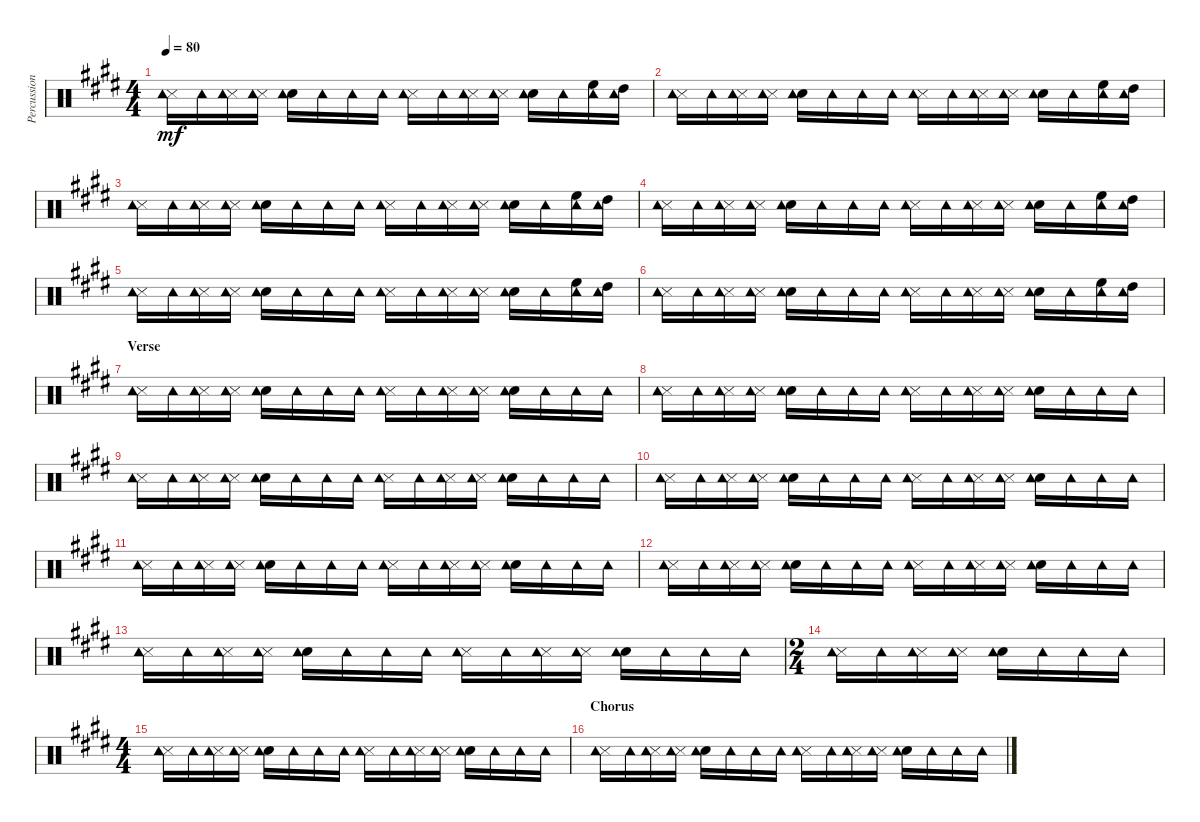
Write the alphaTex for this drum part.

\track ("Percussion" "Percussion") {instrument percussion}
\staff {score}
\articulation defaults
\ts (4 4)
\tempo 80
\clef neutral
\ks c#minor
("Metronome (hit)" "Tambourine (hit)").16{dy mf} "Tambourine (hit)".16 ("Metronome (hit)" "Tambourine (hit)").16 ("Metronome (hit)" "Tambourine (hit)").16 ("Snare (hit) 2" "Tambourine (hit)").16 "Tambourine (hit)".16 "Tambourine (hit)".16 "Tambourine (hit)".16 ("Metronome (hit)" "Tambourine (hit)").16 "Tambourine (hit)".16 ("Metronome (hit)" "Tambourine (hit)").16 ("Metronome (hit)" "Tambourine (hit)").16 ("Snare (hit) 2" "Tambourine (hit)").16 "Tambourine (hit)".16 ("High Floor Tom (hit)" "Tambourine (hit)").16 ("High Tom (hit)" "Tambourine (hit)").16 |
("Metronome (hit)" "Tambourine (hit)").16 "Tambourine (hit)".16 ("Metronome (hit)" "Tambourine (hit)").16 ("Metronome (hit)" "Tambourine (hit)").16 ("Snare (hit) 2" "Tambourine (hit)").16 "Tambourine (hit)".16 "Tambourine (hit)".16 "Tambourine (hit)".16 ("Metronome (hit)" "Tambourine (hit)").16 "Tambourine (hit)".16 ("Metronome (hit)" "Tambourine (hit)").16 ("Metronome (hit)" "Tambourine (hit)").16 ("Snare (hit) 2" "Tambourine (hit)").16 "Tambourine (hit)".16 ("High Floor Tom (hit)" "Tambourine (hit)").16 ("High Tom (hit)" "Tambourine (hit)").16 |
("Metronome (hit)" "Tambourine (hit)").16 "Tambourine (hit)".16 ("Metronome (hit)" "Tambourine (hit)").16 ("Metronome (hit)" "Tambourine (hit)").16 ("Snare (hit) 2" "Tambourine (hit)").16 "Tambourine (hit)".16 "Tambourine (hit)".16 "Tambourine (hit)".16 ("Metronome (hit)" "Tambourine (hit)").16 "Tambourine (hit)".16 ("Metronome (hit)" "Tambourine (hit)").16 ("Metronome (hit)" "Tambourine (hit)").16 ("Snare (hit) 2" "Tambourine (hit)").16 "Tambourine (hit)".16 ("High Floor Tom (hit)" "Tambourine (hit)").16 ("High Tom (hit)" "Tambourine (hit)").16 |
("Metronome (hit)" "Tambourine (hit)").16 "Tambourine (hit)".16 ("Metronome (hit)" "Tambourine (hit)").16 ("Metronome (hit)" "Tambourine (hit)").16 ("Snare (hit) 2" "Tambourine (hit)").16 "Tambourine (hit)".16 "Tambourine (hit)".16 "Tambourine (hit)".16 ("Metronome (hit)" "Tambourine (hit)").16 "Tambourine (hit)".16 ("Metronome (hit)" "Tambourine (hit)").16 ("Metronome (hit)" "Tambourine (hit)").16 ("Snare (hit) 2" "Tambourine (hit)").16 "Tambourine (hit)".16 ("High Floor Tom (hit)" "Tambourine (hit)").16 ("High Tom (hit)" "Tambourine (hit)").16 |
("Metronome (hit)" "Tambourine (hit)").16 "Tambourine (hit)".16 ("Metronome (hit)" "Tambourine (hit)").16 ("Metronome (hit)" "Tambourine (hit)").16 ("Snare (hit) 2" "Tambourine (hit)").16 "Tambourine (hit)".16 "Tambourine (hit)".16 "Tambourine (hit)".16 ("Metronome (hit)" "Tambourine (hit)").16 "Tambourine (hit)".16 ("Metronome (hit)" "Tambourine (hit)").16 ("Metronome (hit)" "Tambourine (hit)").16 ("Snare (hit) 2" "Tambourine (hit)").16 "Tambourine (hit)".16 ("High Floor Tom (hit)" "Tambourine (hit)").16 ("High Tom (hit)" "Tambourine (hit)").16 |
("Metronome (hit)" "Tambourine (hit)").16 "Tambourine (hit)".16 ("Metronome (hit)" "Tambourine (hit)").16 ("Metronome (hit)" "Tambourine (hit)").16 ("Snare (hit) 2" "Tambourine (hit)").16 "Tambourine (hit)".16 "Tambourine (hit)".16 "Tambourine (hit)".16 ("Metronome (hit)" "Tambourine (hit)").16 "Tambourine (hit)".16 ("Metronome (hit)" "Tambourine (hit)").16 ("Metronome (hit)" "Tambourine (hit)").16 ("Snare (hit) 2" "Tambourine (hit)").16 "Tambourine (hit)".16 ("High Floor Tom (hit)" "Tambourine (hit)").16 ("High Tom (hit)" "Tambourine (hit)").16 |
\section ("" "Verse")
("Metronome (hit)" "Tambourine (hit)").16 "Tambourine (hit)".16 ("Metronome (hit)" "Tambourine (hit)").16 ("Metronome (hit)" "Tambourine (hit)").16 ("Snare (hit) 2" "Tambourine (hit)").16 "Tambourine (hit)".16 "Tambourine (hit)".16 "Tambourine (hit)".16 ("Metronome (hit)" "Tambourine (hit)").16 "Tambourine (hit)".16 ("Metronome (hit)" "Tambourine (hit)").16 ("Metronome (hit)" "Tambourine (hit)").16 ("Snare (hit) 2" "Tambourine (hit)").16 "Tambourine (hit)".16 "Tambourine (hit)".16 "Tambourine (hit)".16 |
("Metronome (hit)" "Tambourine (hit)").16 "Tambourine (hit)".16 ("Metronome (hit)" "Tambourine (hit)").16 ("Metronome (hit)" "Tambourine (hit)").16 ("Snare (hit) 2" "Tambourine (hit)").16 "Tambourine (hit)".16 "Tambourine (hit)".16 "Tambourine (hit)".16 ("Metronome (hit)" "Tambourine (hit)").16 "Tambourine (hit)".16 ("Metronome (hit)" "Tambourine (hit)").16 ("Metronome (hit)" "Tambourine (hit)").16 ("Snare (hit) 2" "Tambourine (hit)").16 "Tambourine (hit)".16 "Tambourine (hit)".16 "Tambourine (hit)".16 |
("Metronome (hit)" "Tambourine (hit)").16 "Tambourine (hit)".16 ("Metronome (hit)" "Tambourine (hit)").16 ("Metronome (hit)" "Tambourine (hit)").16 ("Snare (hit) 2" "Tambourine (hit)").16 "Tambourine (hit)".16 "Tambourine (hit)".16 "Tambourine (hit)".16 ("Metronome (hit)" "Tambourine (hit)").16 "Tambourine (hit)".16 ("Metronome (hit)" "Tambourine (hit)").16 ("Metronome (hit)" "Tambourine (hit)").16 ("Snare (hit) 2" "Tambourine (hit)").16 "Tambourine (hit)".16 "Tambourine (hit)".16 "Tambourine (hit)".16 |
("Metronome (hit)" "Tambourine (hit)").16 "Tambourine (hit)".16 ("Metronome (hit)" "Tambourine (hit)").16 ("Metronome (hit)" "Tambourine (hit)").16 ("Snare (hit) 2" "Tambourine (hit)").16 "Tambourine (hit)".16 "Tambourine (hit)".16 "Tambourine (hit)".16 ("Metronome (hit)" "Tambourine (hit)").16 "Tambourine (hit)".16 ("Metronome (hit)" "Tambourine (hit)").16 ("Metronome (hit)" "Tambourine (hit)").16 ("Snare (hit) 2" "Tambourine (hit)").16 "Tambourine (hit)".16 "Tambourine (hit)".16 "Tambourine (hit)".16 |
("Metronome (hit)" "Tambourine (hit)").16 "Tambourine (hit)".16 ("Metronome (hit)" "Tambourine (hit)").16 ("Metronome (hit)" "Tambourine (hit)").16 ("Snare (hit) 2" "Tambourine (hit)").16 "Tambourine (hit)".16 "Tambourine (hit)".16 "Tambourine (hit)".16 ("Metronome (hit)" "Tambourine (hit)").16 "Tambourine (hit)".16 ("Metronome (hit)" "Tambourine (hit)").16 ("Metronome (hit)" "Tambourine (hit)").16 ("Snare (hit) 2" "Tambourine (hit)").16 "Tambourine (hit)".16 "Tambourine (hit)".16 "Tambourine (hit)".16 |
("Metronome (hit)" "Tambourine (hit)").16 "Tambourine (hit)".16 ("Metronome (hit)" "Tambourine (hit)").16 ("Metronome (hit)" "Tambourine (hit)").16 ("Snare (hit) 2" "Tambourine (hit)").16 "Tambourine (hit)".16 "Tambourine (hit)".16 "Tambourine (hit)".16 ("Metronome (hit)" "Tambourine (hit)").16 "Tambourine (hit)".16 ("Metronome (hit)" "Tambourine (hit)").16 ("Metronome (hit)" "Tambourine (hit)").16 ("Snare (hit) 2" "Tambourine (hit)").16 "Tambourine (hit)".16 "Tambourine (hit)".16 "Tambourine (hit)".16 |
("Metronome (hit)" "Tambourine (hit)").16 "Tambourine (hit)".16 ("Metronome (hit)" "Tambourine (hit)").16 ("Metronome (hit)" "Tambourine (hit)").16 ("Snare (hit) 2" "Tambourine (hit)").16 "Tambourine (hit)".16 "Tambourine (hit)".16 "Tambourine (hit)".16 ("Metronome (hit)" "Tambourine (hit)").16 "Tambourine (hit)".16 ("Metronome (hit)" "Tambourine (hit)").16 ("Metronome (hit)" "Tambourine (hit)").16 ("Snare (hit) 2" "Tambourine (hit)").16 "Tambourine (hit)".16 "Tambourine (hit)".16 "Tambourine (hit)".16 |
\ts (2 4)
("Metronome (hit)" "Tambourine (hit)").16 "Tambourine (hit)".16 ("Metronome (hit)" "Tambourine (hit)").16 ("Metronome (hit)" "Tambourine (hit)").16 ("Snare (hit) 2" "Tambourine (hit)").16 "Tambourine (hit)".16 "Tambourine (hit)".16 "Tambourine (hit)".16 |
\ts (4 4)
("Metronome (hit)" "Tambourine (hit)").16 "Tambourine (hit)".16 ("Metronome (hit)" "Tambourine (hit)").16 ("Metronome (hit)" "Tambourine (hit)").16 ("Snare (hit) 2" "Tambourine (hit)").16 "Tambourine (hit)".16 "Tambourine (hit)".16 "Tambourine (hit)".16 ("Metronome (hit)" "Tambourine (hit)").16 "Tambourine (hit)".16 ("Metronome (hit)" "Tambourine (hit)").16 ("Metronome (hit)" "Tambourine (hit)").16 ("Snare (hit) 2" "Tambourine (hit)").16 "Tambourine (hit)".16 "Tambourine (hit)".16 "Tambourine (hit)".16 |
\section ("" "Chorus")
("Metronome (hit)" "Tambourine (hit)").16 "Tambourine (hit)".16 ("Metronome (hit)" "Tambourine (hit)").16 ("Metronome (hit)" "Tambourine (hit)").16 ("Snare (hit) 2" "Tambourine (hit)").16 "Tambourine (hit)".16 "Tambourine (hit)".16 "Tambourine (hit)".16 ("Metronome (hit)" "Tambourine (hit)").16 "Tambourine (hit)".16 ("Metronome (hit)" "Tambourine (hit)").16 ("Metronome (hit)" "Tambourine (hit)").16 ("Snare (hit) 2" "Tambourine (hit)").16 "Tambourine (hit)".16 "Tambourine (hit)".16 "Tambourine (hit)".16
